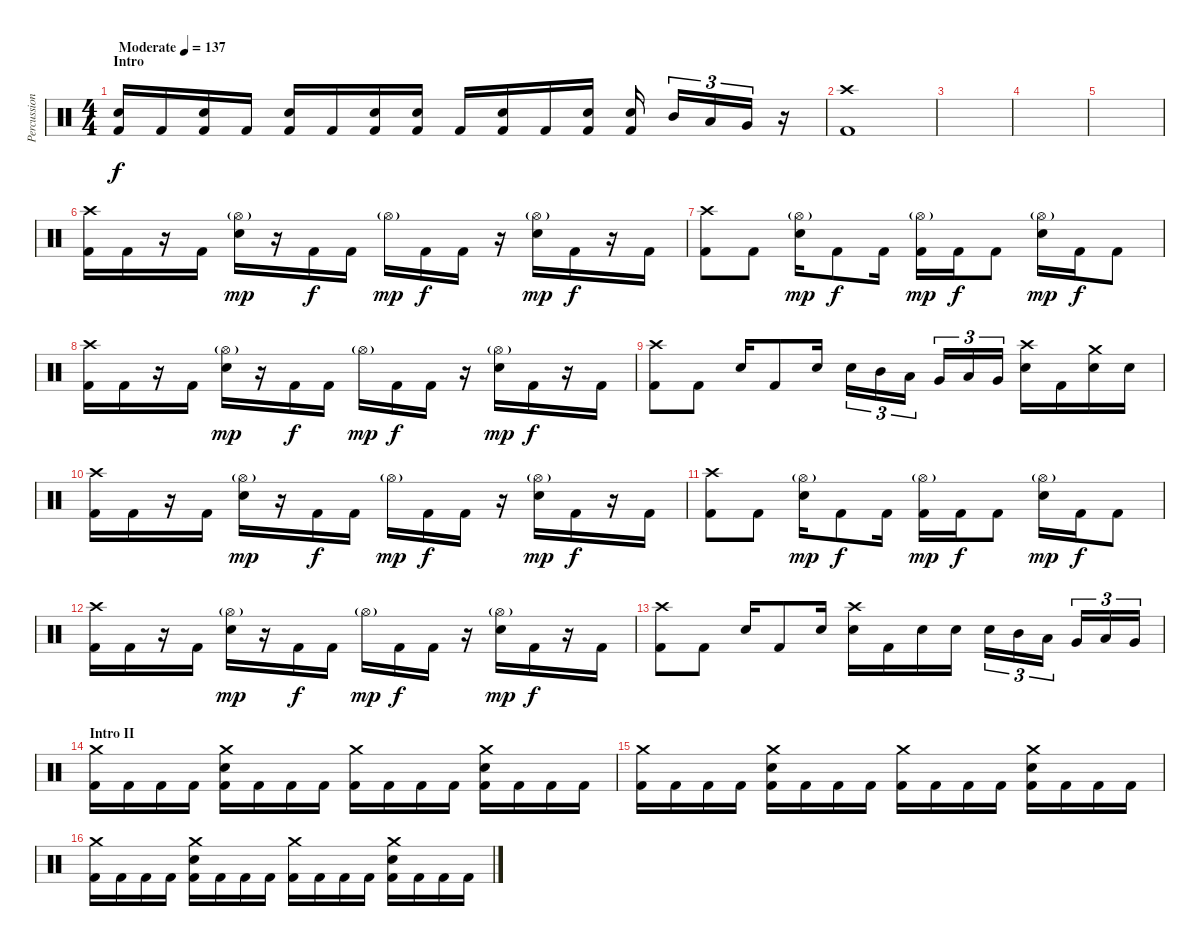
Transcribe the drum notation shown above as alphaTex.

\track ("Percussion" "Percussion") {instrument percussion}
\staff {score}
\articulation defaults
\ts (4 4)
\section ("" "Intro")
\tempo (137 "Moderate")
\clef neutral
\ks c
("Snare (hit) 2" "Kick (hit) 2").16{dy f} "Kick (hit) 2".16 ("Snare (hit) 2" "Kick (hit) 2").16 "Kick (hit) 2".16 ("Snare (hit) 2" "Kick (hit) 2").16 "Kick (hit) 2".16 ("Snare (hit) 2" "Kick (hit) 2").16 ("Snare (hit) 2" "Kick (hit) 2").16 "Kick (hit) 2".16 ("Snare (hit) 2" "Kick (hit) 2").16 "Kick (hit) 2".16 ("Snare (hit) 2" "Kick (hit) 2").16 ("Snare (hit) 2" "Kick (hit) 2").16{beam splitsecondary} "Mid Tom (hit)".16{tu (3 2)} "Low Tom (hit)".16{tu (3 2)} "Very Low Tom (hit)".16{tu (3 2)} r.16 |
("Crash high (hit)" "Kick (hit) 2").1 |
|
|
|
("Crash high (hit)" "Kick (hit) 2").16 "Kick (hit) 2".16 r.16 "Kick (hit) 2".16 ("Hi-Hat (open)"{g} "Snare (hit) 2").16{dy mp} r.16 "Kick (hit) 2".16{dy f} "Kick (hit) 2".16 "Hi-Hat (open)"{g}.16{dy mp} "Kick (hit) 2".16{dy f} "Kick (hit) 2".16 r.16 ("Hi-Hat (open)"{g} "Snare (hit) 2").16{dy mp} "Kick (hit) 2".16{dy f} r.16 "Kick (hit) 2".16 |
("Crash high (hit)" "Kick (hit) 2").8 "Kick (hit) 2".8 ("Hi-Hat (open)"{g} "Snare (hit) 2").16{dy mp} "Kick (hit) 2".8{dy f} "Kick (hit) 2".16 ("Hi-Hat (open)"{g} "Kick (hit) 2").16{dy mp} "Kick (hit) 2".16{dy f} "Kick (hit) 2".8 ("Hi-Hat (open)"{g} "Snare (hit) 2").16{dy mp} "Kick (hit) 2".16{dy f} "Kick (hit) 2".8 |
("Crash high (hit)" "Kick (hit) 2").16 "Kick (hit) 2".16 r.16 "Kick (hit) 2".16 ("Hi-Hat (open)"{g} "Snare (hit) 2").16{dy mp} r.16 "Kick (hit) 2".16{dy f} "Kick (hit) 2".16 "Hi-Hat (open)"{g}.16{dy mp} "Kick (hit) 2".16{dy f} "Kick (hit) 2".16 r.16 ("Hi-Hat (open)"{g} "Snare (hit) 2").16{dy mp} "Kick (hit) 2".16{dy f} r.16 "Kick (hit) 2".16 |
("Crash high (hit)" "Kick (hit) 2").8 "Kick (hit) 2".8 "Snare (hit) 2".16 "Kick (hit) 2".8 "Snare (hit) 2".16 "Snare (hit) 2".16{tu (3 2)} "Mid Tom (hit)".16{tu (3 2)} "Low Tom (hit)".16{tu (3 2) beam splitsecondary} "Very Low Tom (hit)".16{tu (3 2)} "Low Tom (hit)".16{tu (3 2)} "Very Low Tom (hit)".16{tu (3 2)} ("Crash high (hit)" "Snare (hit) 2").16 "Kick (hit) 2".16 ("Crash medium (hit)" "Snare (hit) 2").16 "Snare (hit) 2".16 |
("Crash high (hit)" "Kick (hit) 2").16 "Kick (hit) 2".16 r.16 "Kick (hit) 2".16 ("Hi-Hat (open)"{g} "Snare (hit) 2").16{dy mp} r.16 "Kick (hit) 2".16{dy f} "Kick (hit) 2".16 "Hi-Hat (open)"{g}.16{dy mp} "Kick (hit) 2".16{dy f} "Kick (hit) 2".16 r.16 ("Hi-Hat (open)"{g} "Snare (hit) 2").16{dy mp} "Kick (hit) 2".16{dy f} r.16 "Kick (hit) 2".16 |
("Crash high (hit)" "Kick (hit) 2").8 "Kick (hit) 2".8 ("Hi-Hat (open)"{g} "Snare (hit) 2").16{dy mp} "Kick (hit) 2".8{dy f} "Kick (hit) 2".16 ("Hi-Hat (open)"{g} "Kick (hit) 2").16{dy mp} "Kick (hit) 2".16{dy f} "Kick (hit) 2".8 ("Hi-Hat (open)"{g} "Snare (hit) 2").16{dy mp} "Kick (hit) 2".16{dy f} "Kick (hit) 2".8 |
("Crash high (hit)" "Kick (hit) 2").16 "Kick (hit) 2".16 r.16 "Kick (hit) 2".16 ("Hi-Hat (open)"{g} "Snare (hit) 2").16{dy mp} r.16 "Kick (hit) 2".16{dy f} "Kick (hit) 2".16 "Hi-Hat (open)"{g}.16{dy mp} "Kick (hit) 2".16{dy f} "Kick (hit) 2".16 r.16 ("Hi-Hat (open)"{g} "Snare (hit) 2").16{dy mp} "Kick (hit) 2".16{dy f} r.16 "Kick (hit) 2".16 |
("Crash high (hit)" "Kick (hit) 2").8 "Kick (hit) 2".8 "Snare (hit) 2".16 "Kick (hit) 2".8 "Snare (hit) 2".16 ("Crash high (hit)" "Snare (hit) 2").16 "Kick (hit) 2".16 "Snare (hit) 2".16 "Snare (hit) 2".16 "Snare (hit) 2".16{tu (3 2)} "Mid Tom (hit)".16{tu (3 2)} "Low Tom (hit)".16{tu (3 2) beam splitsecondary} "Very Low Tom (hit)".16{tu (3 2)} "Low Tom (hit)".16{tu (3 2)} "Very Low Tom (hit)".16{tu (3 2)} |
\section ("" "Intro II")
("Crash medium (hit)" "Kick (hit) 2").16 "Kick (hit) 2".16 "Kick (hit) 2".16 "Kick (hit) 2".16 ("Crash medium (hit)" "Snare (hit) 2" "Kick (hit) 2").16 "Kick (hit) 2".16 "Kick (hit) 2".16 "Kick (hit) 2".16 ("Crash medium (hit)" "Kick (hit) 2").16 "Kick (hit) 2".16 "Kick (hit) 2".16 "Kick (hit) 2".16 ("Crash medium (hit)" "Snare (hit) 2" "Kick (hit) 2").16 "Kick (hit) 2".16 "Kick (hit) 2".16 "Kick (hit) 2".16 |
("Crash medium (hit)" "Kick (hit) 2").16 "Kick (hit) 2".16 "Kick (hit) 2".16 "Kick (hit) 2".16 ("Crash medium (hit)" "Snare (hit) 2" "Kick (hit) 2").16 "Kick (hit) 2".16 "Kick (hit) 2".16 "Kick (hit) 2".16 ("Crash medium (hit)" "Kick (hit) 2").16 "Kick (hit) 2".16 "Kick (hit) 2".16 "Kick (hit) 2".16 ("Crash medium (hit)" "Snare (hit) 2" "Kick (hit) 2").16 "Kick (hit) 2".16 "Kick (hit) 2".16 "Kick (hit) 2".16 |
("Crash medium (hit)" "Kick (hit) 2").16 "Kick (hit) 2".16 "Kick (hit) 2".16 "Kick (hit) 2".16 ("Crash medium (hit)" "Snare (hit) 2" "Kick (hit) 2").16 "Kick (hit) 2".16 "Kick (hit) 2".16 "Kick (hit) 2".16 ("Crash medium (hit)" "Kick (hit) 2").16 "Kick (hit) 2".16 "Kick (hit) 2".16 "Kick (hit) 2".16 ("Crash medium (hit)" "Snare (hit) 2" "Kick (hit) 2").16 "Kick (hit) 2".16 "Kick (hit) 2".16 "Kick (hit) 2".16
